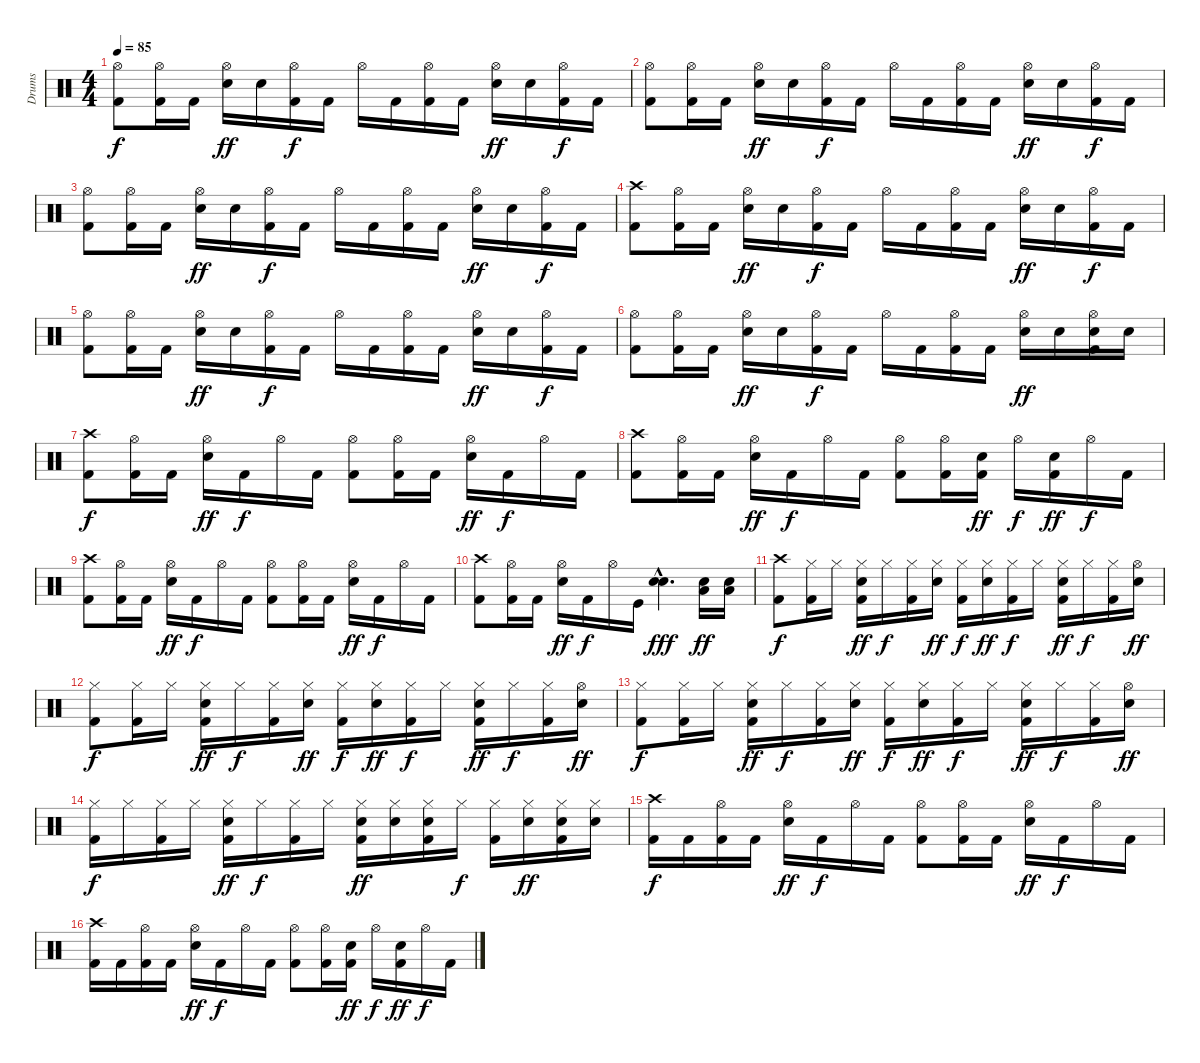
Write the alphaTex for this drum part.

\track ("Drums" "Drums") {instrument percussion}
\staff {score}
\articulation defaults
\ts (4 4)
\tempo 85
\clef neutral
\ks c
("Hi-Hat (open)" "Kick (hit) 2").8{dy f} ("Hi-Hat (open)" "Kick (hit) 2").16 "Kick (hit) 2".16 ("Hi-Hat (open)" "Electric Snare (hit)").16{dy ff} "Electric Snare (hit)".16 ("Hi-Hat (open)" "Kick (hit) 2").16{dy f} "Kick (hit) 2".16 "Hi-Hat (open)".16 "Kick (hit) 2".16 ("Hi-Hat (open)" "Kick (hit) 2").16 "Kick (hit) 2".16 ("Hi-Hat (open)" "Electric Snare (hit)").16{dy ff} "Electric Snare (hit)".16 ("Hi-Hat (open)" "Kick (hit) 2").16{dy f} "Kick (hit) 2".16 |
("Hi-Hat (open)" "Kick (hit) 2").8 ("Hi-Hat (open)" "Kick (hit) 2").16 "Kick (hit) 2".16 ("Hi-Hat (open)" "Electric Snare (hit)").16{dy ff} "Electric Snare (hit)".16 ("Hi-Hat (open)" "Kick (hit) 2").16{dy f} "Kick (hit) 2".16 "Hi-Hat (open)".16 "Kick (hit) 2".16 ("Hi-Hat (open)" "Kick (hit) 2").16 "Kick (hit) 2".16 ("Hi-Hat (open)" "Electric Snare (hit)").16{dy ff} "Electric Snare (hit)".16 ("Hi-Hat (open)" "Kick (hit) 2").16{dy f} "Kick (hit) 2".16 |
("Hi-Hat (open)" "Kick (hit) 2").8 ("Hi-Hat (open)" "Kick (hit) 2").16 "Kick (hit) 2".16 ("Hi-Hat (open)" "Electric Snare (hit)").16{dy ff} "Electric Snare (hit)".16 ("Hi-Hat (open)" "Kick (hit) 2").16{dy f} "Kick (hit) 2".16 "Hi-Hat (open)".16 "Kick (hit) 2".16 ("Hi-Hat (open)" "Kick (hit) 2").16 "Kick (hit) 2".16 ("Hi-Hat (open)" "Electric Snare (hit)").16{dy ff} "Electric Snare (hit)".16 ("Hi-Hat (open)" "Kick (hit) 2").16{dy f} "Kick (hit) 2".16 |
("Crash high (hit)" "Kick (hit) 2").8 ("Hi-Hat (open)" "Kick (hit) 2").16 "Kick (hit) 2".16 ("Hi-Hat (open)" "Electric Snare (hit)").16{dy ff} "Electric Snare (hit)".16 ("Hi-Hat (open)" "Kick (hit) 2").16{dy f} "Kick (hit) 2".16 "Hi-Hat (open)".16 "Kick (hit) 2".16 ("Hi-Hat (open)" "Kick (hit) 2").16 "Kick (hit) 2".16 ("Hi-Hat (open)" "Electric Snare (hit)").16{dy ff} "Electric Snare (hit)".16 ("Hi-Hat (open)" "Kick (hit) 2").16{dy f} "Kick (hit) 2".16 |
("Hi-Hat (open)" "Kick (hit) 2").8 ("Hi-Hat (open)" "Kick (hit) 2").16 "Kick (hit) 2".16 ("Hi-Hat (open)" "Electric Snare (hit)").16{dy ff} "Electric Snare (hit)".16 ("Hi-Hat (open)" "Kick (hit) 2").16{dy f} "Kick (hit) 2".16 "Hi-Hat (open)".16 "Kick (hit) 2".16 ("Hi-Hat (open)" "Kick (hit) 2").16 "Kick (hit) 2".16 ("Hi-Hat (open)" "Electric Snare (hit)").16{dy ff} "Electric Snare (hit)".16 ("Hi-Hat (open)" "Kick (hit) 2").16{dy f} "Kick (hit) 2".16 |
("Hi-Hat (open)" "Kick (hit) 2").8 ("Hi-Hat (open)" "Kick (hit) 2").16 "Kick (hit) 2".16 ("Hi-Hat (open)" "Electric Snare (hit)").16{dy ff} "Electric Snare (hit)".16 ("Hi-Hat (open)" "Kick (hit) 2").16{dy f} "Kick (hit) 2".16 "Hi-Hat (open)".16 "Kick (hit) 2".16 ("Hi-Hat (open)" "Kick (hit) 2").16 "Kick (hit) 2".16 ("Hi-Hat (open)" "Electric Snare (hit)").16{dy ff} "Electric Snare (hit)".16 ("Hi-Hat (open)" "Electric Snare (hit)" "Kick (hit) 2").16 "Electric Snare (hit)".16 |
("Crash high (hit)" "Kick (hit) 2").8{dy f} ("Hi-Hat (open)" "Kick (hit) 2").16 "Kick (hit) 2".16 ("Hi-Hat (open)" "Electric Snare (hit)").16{dy ff} "Kick (hit) 2".16{dy f} "Hi-Hat (open)".16 "Kick (hit) 2".16 ("Hi-Hat (open)" "Kick (hit) 2").8 ("Hi-Hat (open)" "Kick (hit) 2").16 "Kick (hit) 2".16 ("Hi-Hat (open)" "Electric Snare (hit)").16{dy ff} "Kick (hit) 2".16{dy f} "Hi-Hat (open)".16 "Kick (hit) 2".16 |
("Crash high (hit)" "Kick (hit) 2").8 ("Hi-Hat (open)" "Kick (hit) 2").16 "Kick (hit) 2".16 ("Hi-Hat (open)" "Electric Snare (hit)").16{dy ff} "Kick (hit) 2".16{dy f} "Hi-Hat (open)".16 "Kick (hit) 2".16 ("Hi-Hat (open)" "Kick (hit) 2").8 ("Hi-Hat (open)" "Kick (hit) 2").16 ("Electric Snare (hit)" "Kick (hit) 2").16{dy ff} "Hi-Hat (open)".16{dy f} ("Electric Snare (hit)" "Kick (hit) 2").16{dy ff} "Hi-Hat (open)".16{dy f} "Kick (hit) 2".16 |
("Crash high (hit)" "Kick (hit) 2").8 ("Hi-Hat (open)" "Kick (hit) 2").16 "Kick (hit) 2".16 ("Hi-Hat (open)" "Electric Snare (hit)").16{dy ff} "Kick (hit) 2".16{dy f} "Hi-Hat (open)".16 "Kick (hit) 2".16 ("Hi-Hat (open)" "Kick (hit) 2").8 ("Hi-Hat (open)" "Kick (hit) 2").16 "Kick (hit) 2".16 ("Hi-Hat (open)" "Electric Snare (hit)").16{dy ff} "Kick (hit) 2".16{dy f} "Hi-Hat (open)".16 "Kick (hit) 2".16 |
("Crash high (hit)" "Kick (hit) 2").8 ("Hi-Hat (open)" "Kick (hit) 2").16 "Kick (hit) 2".16 ("Hi-Hat (open)" "Electric Snare (hit)").16{dy ff} "Kick (hit) 2".16{dy f} "Hi-Hat (open)".16 "Kick (hit)".16 ("Electric Snare (hit)"{hac} "Electric Snare (hit)"{hac}).4{d dy fff} ("Low Tom (hit)" "Electric Snare (hit)").16{dy ff} ("Low Tom (hit)" "Electric Snare (hit)").16 |
("Crash high (hit)" "Kick (hit) 2").8{dy f} ("Hi-Hat (closed)" "Kick (hit) 2").16 "Hi-Hat (closed)".16 ("Hi-Hat (closed)" "Electric Snare (hit)" "Kick (hit) 2").16{dy ff} "Hi-Hat (closed)".16{dy f} ("Hi-Hat (closed)" "Kick (hit) 2").16 ("Hi-Hat (closed)" "Electric Snare (hit)").16{dy ff} ("Hi-Hat (closed)" "Kick (hit) 2").16{dy f} ("Hi-Hat (closed)" "Electric Snare (hit)").16{dy ff} ("Hi-Hat (closed)" "Kick (hit) 2").16{dy f} "Hi-Hat (closed)".16 ("Hi-Hat (closed)" "Electric Snare (hit)" "Kick (hit) 2").16{dy ff} "Hi-Hat (closed)".16{dy f} ("Hi-Hat (closed)" "Kick (hit) 2").16 ("Hi-Hat (open)" "Electric Snare (hit)").16{dy ff} |
("Hi-Hat (closed)" "Kick (hit) 2").8{dy f} ("Hi-Hat (closed)" "Kick (hit) 2").16 "Hi-Hat (closed)".16 ("Hi-Hat (closed)" "Electric Snare (hit)" "Kick (hit) 2").16{dy ff} "Hi-Hat (closed)".16{dy f} ("Hi-Hat (closed)" "Kick (hit) 2").16 ("Hi-Hat (closed)" "Electric Snare (hit)").16{dy ff} ("Hi-Hat (closed)" "Kick (hit) 2").16{dy f} ("Hi-Hat (closed)" "Electric Snare (hit)").16{dy ff} ("Hi-Hat (closed)" "Kick (hit) 2").16{dy f} "Hi-Hat (closed)".16 ("Hi-Hat (closed)" "Electric Snare (hit)" "Kick (hit) 2").16{dy ff} "Hi-Hat (closed)".16{dy f} ("Hi-Hat (closed)" "Kick (hit) 2").16 ("Hi-Hat (open)" "Electric Snare (hit)").16{dy ff} |
("Hi-Hat (closed)" "Kick (hit) 2").8{dy f} ("Hi-Hat (closed)" "Kick (hit) 2").16 "Hi-Hat (closed)".16 ("Hi-Hat (closed)" "Electric Snare (hit)" "Kick (hit) 2").16{dy ff} "Hi-Hat (closed)".16{dy f} ("Hi-Hat (closed)" "Kick (hit) 2").16 ("Hi-Hat (closed)" "Electric Snare (hit)").16{dy ff} ("Hi-Hat (closed)" "Kick (hit) 2").16{dy f} ("Hi-Hat (closed)" "Electric Snare (hit)").16{dy ff} ("Hi-Hat (closed)" "Kick (hit) 2").16{dy f} "Hi-Hat (closed)".16 ("Hi-Hat (closed)" "Electric Snare (hit)" "Kick (hit) 2").16{dy ff} "Hi-Hat (closed)".16{dy f} ("Hi-Hat (closed)" "Kick (hit) 2").16 ("Hi-Hat (open)" "Electric Snare (hit)").16{dy ff} |
("Hi-Hat (closed)" "Kick (hit) 2").16{dy f} "Hi-Hat (closed)".16 ("Hi-Hat (closed)" "Kick (hit) 2").16 "Hi-Hat (closed)".16 ("Hi-Hat (closed)" "Electric Snare (hit)" "Kick (hit) 2").16{dy ff} "Hi-Hat (closed)".16{dy f} ("Hi-Hat (closed)" "Kick (hit) 2").16 "Hi-Hat (closed)".16 ("Hi-Hat (closed)" "Electric Snare (hit)" "Kick (hit) 2").16{dy ff} ("Hi-Hat (closed)" "Electric Snare (hit)").16 ("Hi-Hat (closed)" "Electric Snare (hit)" "Kick (hit) 2").16 "Hi-Hat (closed)".16{dy f} ("Hi-Hat (closed)" "Kick (hit) 2").16 ("Hi-Hat (closed)" "Electric Snare (hit)").16{dy ff} ("Hi-Hat (closed)" "Electric Snare (hit)" "Kick (hit) 2").16 ("Hi-Hat (closed)" "Electric Snare (hit)").16 |
("Crash high (hit)" "Kick (hit) 2").16{dy f} "Kick (hit) 2".16 ("Hi-Hat (open)" "Kick (hit) 2").16 "Kick (hit) 2".16 ("Hi-Hat (open)" "Electric Snare (hit)").16{dy ff} "Kick (hit) 2".16{dy f} "Hi-Hat (open)".16 "Kick (hit) 2".16 ("Hi-Hat (open)" "Kick (hit) 2").8 ("Hi-Hat (open)" "Kick (hit) 2").16 "Kick (hit) 2".16 ("Hi-Hat (open)" "Electric Snare (hit)").16{dy ff} "Kick (hit) 2".16{dy f} "Hi-Hat (open)".16 "Kick (hit) 2".16 |
("Crash high (hit)" "Kick (hit) 2").16 "Kick (hit) 2".16 ("Hi-Hat (open)" "Kick (hit) 2").16 "Kick (hit) 2".16 ("Hi-Hat (open)" "Electric Snare (hit)").16{dy ff} "Kick (hit) 2".16{dy f} "Hi-Hat (open)".16 "Kick (hit) 2".16 ("Hi-Hat (open)" "Kick (hit) 2").8 ("Hi-Hat (open)" "Kick (hit) 2").16 ("Electric Snare (hit)" "Kick (hit) 2").16{dy ff} "Hi-Hat (open)".16{dy f} ("Electric Snare (hit)" "Kick (hit) 2").16{dy ff} "Hi-Hat (open)".16{dy f} "Kick (hit) 2".16
